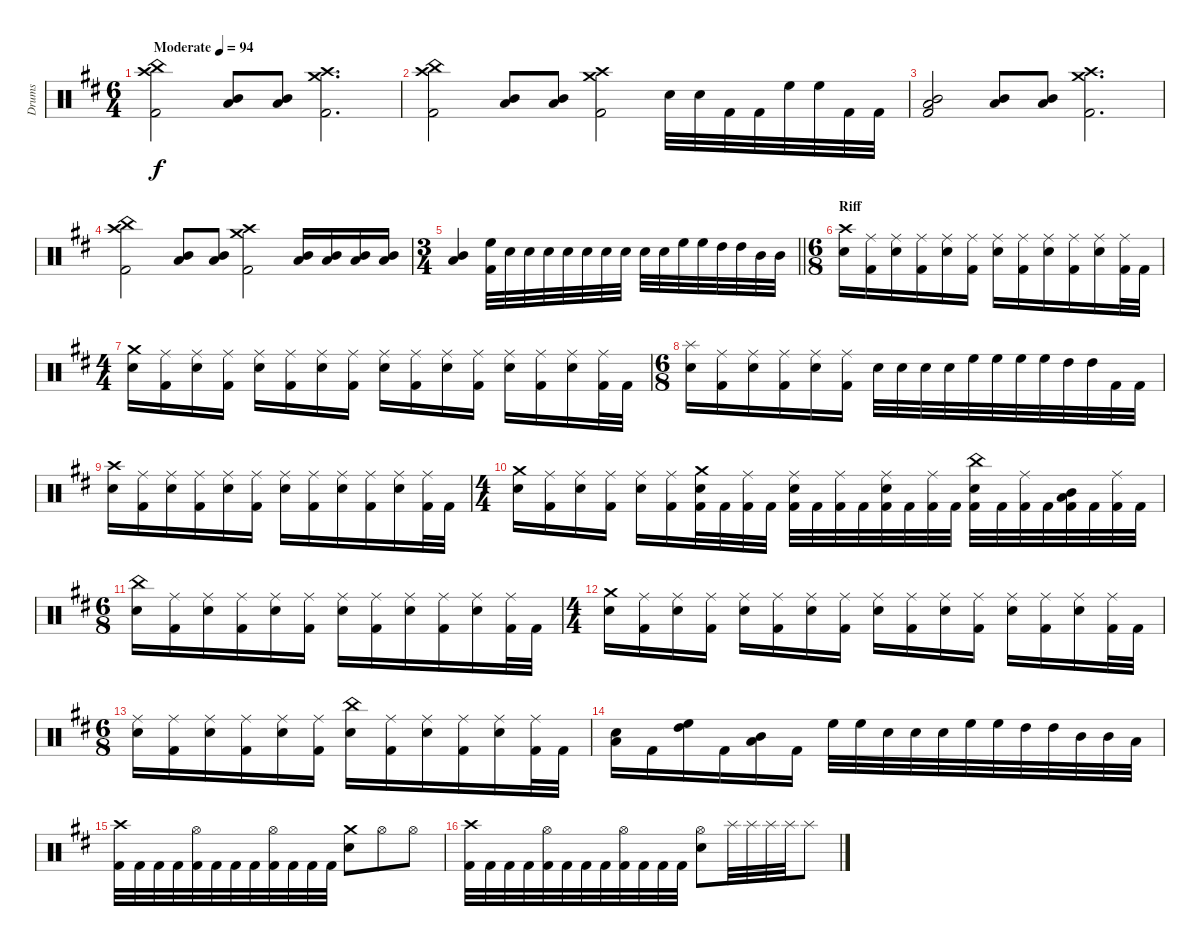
\track ("Drums" "Drums") {instrument percussion}
\staff {score}
\articulation defaults
\ts (6 4)
\tempo (94 "Moderate")
\clef neutral
\ks bminor
("China (hit)" "Crash high (hit)" "Kick (hit) 2").2{dy f} ("Mid Tom (hit)" "Low Tom (hit)").8 ("Mid Tom (hit)" "Low Tom (hit)").8 ("Crash medium (hit)" "Crash high (hit)" "Kick (hit) 2").2{d} |
("China (hit)" "Crash high (hit)" "Kick (hit) 2").2 ("Mid Tom (hit)" "Low Tom (hit)").8 ("Mid Tom (hit)" "Low Tom (hit)").8 ("Crash medium (hit)" "Crash high (hit)" "Kick (hit) 2").2 "Snare (hit) 2".32 "Snare (hit) 2".32 "Kick (hit) 2".32 "Kick (hit) 2".32 "High Floor Tom (hit)".32 "High Floor Tom (hit)".32 "Kick (hit) 2".32 "Kick (hit) 2".32 |
("Low Tom (hit)" "Mid Tom (hit)" "Kick (hit) 2").2 ("Mid Tom (hit)" "Low Tom (hit)").8 ("Mid Tom (hit)" "Low Tom (hit)").8 ("Crash medium (hit)" "Crash high (hit)" "Kick (hit) 2").2{d} |
("China (hit)" "Crash high (hit)" "Kick (hit) 2").2 ("Mid Tom (hit)" "Low Tom (hit)").8 ("Mid Tom (hit)" "Low Tom (hit)").8 ("Crash medium (hit)" "Crash high (hit)" "Kick (hit) 2").2 ("Mid Tom (hit)" "Low Tom (hit)").16 ("Mid Tom (hit)" "Low Tom (hit)").16 ("Mid Tom (hit)" "Low Tom (hit)").16 ("Mid Tom (hit)" "Low Tom (hit)").16 |
\ts (3 4)
\barLineRight lightlight
("Mid Tom (hit)" "Low Tom (hit)").4 ("High Floor Tom (hit)" "Kick (hit) 2").32 "Snare (hit) 2".32 "Snare (hit) 2".32 "Snare (hit) 2".32 "Snare (hit) 2".32 "Snare (hit) 2".32 "Snare (hit) 2".32 "Snare (hit) 2".32 "Snare (hit) 2".32 "Snare (hit) 2".32 "High Floor Tom (hit)".32 "High Floor Tom (hit)".32 "High Tom (hit)".32 "High Tom (hit)".32 "Mid Tom (hit)".32 "Mid Tom (hit)".32 |
\ts (6 8)
\section ("" "Riff")
("Crash high (hit)" "Snare (hit) 2").16 ("Ride (middle)" "Kick (hit) 2").16 ("Ride (middle)" "Snare (hit) 2").16 ("Ride (middle)" "Kick (hit) 2").16 ("Ride (middle)" "Snare (hit) 2").16 ("Ride (middle)" "Kick (hit) 2").16 ("Ride (middle)" "Snare (hit) 2").16 ("Ride (middle)" "Kick (hit) 2").16 ("Ride (middle)" "Snare (hit) 2").16 ("Ride (middle)" "Kick (hit) 2").16 ("Ride (middle)" "Snare (hit) 2").16 ("Ride (middle)" "Kick (hit) 2").32 "Kick (hit) 2".32 |
\ts (4 4)
("Crash medium (hit)" "Snare (hit) 2").16 ("Ride (middle)" "Kick (hit) 2").16 ("Ride (middle)" "Snare (hit) 2").16 ("Ride (middle)" "Kick (hit) 2").16 ("Ride (middle)" "Snare (hit) 2").16 ("Ride (middle)" "Kick (hit) 2").16 ("Ride (middle)" "Snare (hit) 2").16 ("Ride (middle)" "Kick (hit) 2").16 ("Ride (middle)" "Snare (hit) 2").16 ("Ride (middle)" "Kick (hit) 2").16 ("Ride (middle)" "Snare (hit) 2").16 ("Ride (middle)" "Kick (hit) 2").16 ("Ride (middle)" "Snare (hit) 2").16 ("Ride (middle)" "Kick (hit) 2").16 ("Ride (middle)" "Snare (hit) 2").16 ("Ride (middle)" "Kick (hit) 2").32 "Kick (hit) 2".32 |
\ts (6 8)
("Splash (hit)" "Snare (hit) 2").16 ("Ride (middle)" "Kick (hit) 2").16 ("Ride (middle)" "Snare (hit) 2").16 ("Ride (middle)" "Kick (hit) 2").16 ("Ride (middle)" "Snare (hit) 2").16 ("Ride (middle)" "Kick (hit) 2").16 "Snare (hit) 2".32 "Snare (hit) 2".32 "Snare (hit) 2".32 "Snare (hit) 2".32 "High Floor Tom (hit)".32 "High Floor Tom (hit)".32 "High Floor Tom (hit)".32 "High Floor Tom (hit)".32 "High Tom (hit)".32 "High Tom (hit)".32 "Kick (hit) 2".32 "Kick (hit) 2".32 |
("Crash high (hit)" "Snare (hit) 2").16 ("Ride (middle)" "Kick (hit) 2").16 ("Ride (middle)" "Snare (hit) 2").16 ("Ride (middle)" "Kick (hit) 2").16 ("Ride (middle)" "Snare (hit) 2").16 ("Ride (middle)" "Kick (hit) 2").16 ("Ride (middle)" "Snare (hit) 2").16 ("Ride (middle)" "Kick (hit) 2").16 ("Ride (middle)" "Snare (hit) 2").16 ("Ride (middle)" "Kick (hit) 2").16 ("Ride (middle)" "Snare (hit) 2").16 ("Ride (middle)" "Kick (hit) 2").32 "Kick (hit) 2".32 |
\ts (4 4)
("Crash medium (hit)" "Snare (hit) 2").16 ("Ride (middle)" "Kick (hit) 2").16 ("Ride (middle)" "Snare (hit) 2").16 ("Ride (middle)" "Kick (hit) 2").16 ("Ride (middle)" "Snare (hit) 2").16 ("Ride (middle)" "Kick (hit) 2").16 ("Crash medium (hit)" "Snare (hit) 2" "Kick (hit) 2").32 "Kick (hit) 2".32 ("Ride (middle)" "Kick (hit) 2").32 "Kick (hit) 2".32 ("Ride (middle)" "Snare (hit) 2" "Kick (hit) 2").32 "Kick (hit) 2".32 ("Ride (middle)" "Kick (hit) 2").32 "Kick (hit) 2".32 ("Ride (middle)" "Snare (hit) 2" "Kick (hit) 2").32 "Kick (hit) 2".32 ("Ride (middle)" "Kick (hit) 2").32 "Kick (hit) 2".32 ("China (hit)" "Snare (hit) 2" "Kick (hit) 2").32 "Kick (hit) 2".32 ("Ride (middle)" "Kick (hit) 2").32 "Kick (hit) 2".32 ("Mid Tom (hit)" "Low Tom (hit)" "Kick (hit) 2").32 "Kick (hit) 2".32 ("Ride (middle)" "Kick (hit) 2").32 "Kick (hit) 2".32 |
\ts (6 8)
("China (hit)" "Snare (hit) 2").16 ("Ride (middle)" "Kick (hit) 2").16 ("Ride (middle)" "Snare (hit) 2").16 ("Ride (middle)" "Kick (hit) 2").16 ("Ride (middle)" "Snare (hit) 2").16 ("Ride (middle)" "Kick (hit) 2").16 ("Ride (middle)" "Snare (hit) 2").16 ("Ride (middle)" "Kick (hit) 2").16 ("Ride (middle)" "Snare (hit) 2").16 ("Ride (middle)" "Kick (hit) 2").16 ("Ride (middle)" "Snare (hit) 2").16 ("Ride (middle)" "Kick (hit) 2").32 "Kick (hit) 2".32 |
\ts (4 4)
("Crash medium (hit)" "Snare (hit) 2").16 ("Ride (middle)" "Kick (hit) 2").16 ("Ride (middle)" "Snare (hit) 2").16 ("Ride (middle)" "Kick (hit) 2").16 ("Ride (middle)" "Snare (hit) 2").16 ("Ride (middle)" "Kick (hit) 2").16 ("Ride (middle)" "Snare (hit) 2").16 ("Ride (middle)" "Kick (hit) 2").16 ("Ride (middle)" "Snare (hit) 2").16 ("Ride (middle)" "Kick (hit) 2").16 ("Ride (middle)" "Snare (hit) 2").16 ("Ride (middle)" "Kick (hit) 2").16 ("Ride (middle)" "Snare (hit) 2").16 ("Ride (middle)" "Kick (hit) 2").16 ("Ride (middle)" "Snare (hit) 2").16 ("Ride (middle)" "Kick (hit) 2").32 "Kick (hit) 2".32 |
\ts (6 8)
("Ride (middle)" "Snare (hit) 2").16 ("Ride (middle)" "Kick (hit) 2").16 ("Ride (middle)" "Snare (hit) 2").16 ("Ride (middle)" "Kick (hit) 2").16 ("Ride (middle)" "Snare (hit) 2").16 ("Ride (middle)" "Kick (hit) 2").16 ("China (hit)" "Snare (hit) 2").16 ("Ride (middle)" "Kick (hit) 2").16 ("Ride (middle)" "Snare (hit) 2").16 ("Ride (middle)" "Kick (hit) 2").16 ("Ride (middle)" "Snare (hit) 2").16 ("Ride (middle)" "Kick (hit) 2").32 "Kick (hit) 2".32 |
("Low Tom (hit)" "Snare (hit) 2").16 "Kick (hit) 2".16 ("High Tom (hit)" "High Floor Tom (hit)").16 "Kick (hit) 2".16 ("Low Tom (hit)" "Mid Tom (hit)").16 "Kick (hit) 2".16 "High Floor Tom (hit)".32 "High Floor Tom (hit)".32 "Snare (hit) 2".32 "Snare (hit) 2".32 "Snare (hit) 2".32 "High Floor Tom (hit)".32 "High Floor Tom (hit)".32 "High Tom (hit)".32 "High Tom (hit)".32 "Mid Tom (hit)".32 "Mid Tom (hit)".32 "Low Tom (hit)".32 |
("Crash high (hit)" "Kick (hit) 2").32 "Kick (hit) 2".32 "Kick (hit) 2".32 "Kick (hit) 2".32 ("Hi-Hat (open)" "Kick (hit) 2").32 "Kick (hit) 2".32 "Kick (hit) 2".32 "Kick (hit) 2".32 ("Hi-Hat (open)" "Kick (hit) 2").32 "Kick (hit) 2".32 "Kick (hit) 2".32 "Kick (hit) 2".32 ("Crash medium (hit)" "Snare (hit) 2").8 "Hi-Hat (open)".8 "Hi-Hat (open)".8 |
("Crash high (hit)" "Kick (hit) 2").32 "Kick (hit) 2".32 "Kick (hit) 2".32 "Kick (hit) 2".32 ("Hi-Hat (open)" "Kick (hit) 2").32 "Kick (hit) 2".32 "Kick (hit) 2".32 "Kick (hit) 2".32 ("Hi-Hat (open)" "Kick (hit) 2").32 "Kick (hit) 2".32 "Kick (hit) 2".32 "Kick (hit) 2".32 ("Hi-Hat (open)" "Snare (hit) 2").8 "Splash (hit)".32 "Splash (hit)".32 "Splash (hit)".32 "Splash (hit)".32 "Splash (hit)".8
